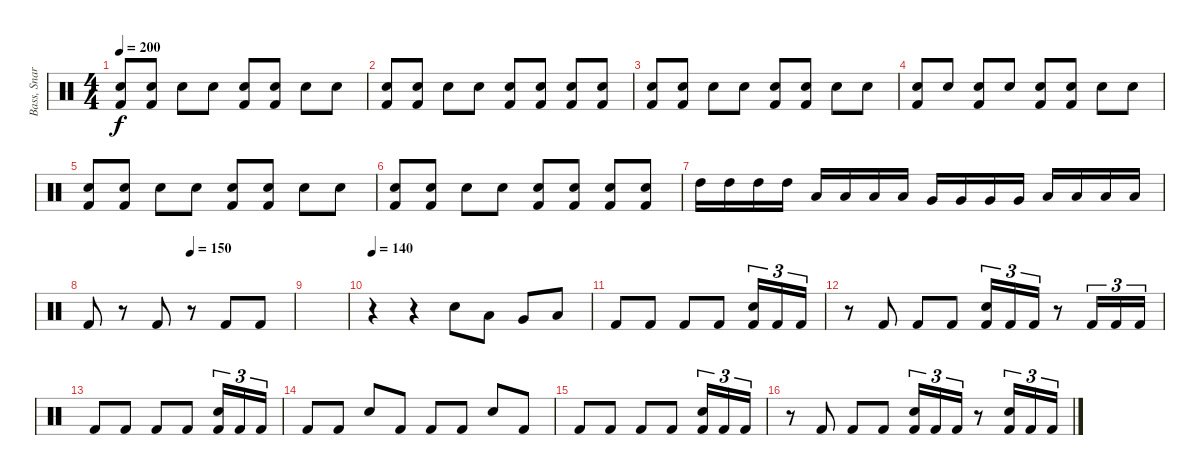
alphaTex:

\track ("Bass, Snare & Toms" "Bass, Snar") {instrument percussion}
\staff {score}
\articulation defaults
\ts (4 4)
\tempo 200
\clef neutral
\ks c
("Electric Snare (hit)" "Kick (hit) 2").8{dy f} ("Electric Snare (hit)" "Kick (hit) 2").8 "Electric Snare (hit)".8 "Electric Snare (hit)".8 ("Electric Snare (hit)" "Kick (hit) 2").8 ("Electric Snare (hit)" "Kick (hit) 2").8 "Electric Snare (hit)".8 "Electric Snare (hit)".8 |
("Electric Snare (hit)" "Kick (hit) 2").8 ("Electric Snare (hit)" "Kick (hit) 2").8 "Electric Snare (hit)".8 "Electric Snare (hit)".8 ("Electric Snare (hit)" "Kick (hit) 2").8 ("Electric Snare (hit)" "Kick (hit) 2").8 ("Electric Snare (hit)" "Kick (hit) 2").8 ("Electric Snare (hit)" "Kick (hit) 2").8 |
("Electric Snare (hit)" "Kick (hit) 2").8 ("Electric Snare (hit)" "Kick (hit) 2").8 "Electric Snare (hit)".8 "Electric Snare (hit)".8 ("Electric Snare (hit)" "Kick (hit) 2").8 ("Electric Snare (hit)" "Kick (hit) 2").8 "Electric Snare (hit)".8 "Electric Snare (hit)".8 |
("Electric Snare (hit)" "Kick (hit) 2").8 "Electric Snare (hit)".8 ("Electric Snare (hit)" "Kick (hit) 2").8 "Electric Snare (hit)".8 ("Electric Snare (hit)" "Kick (hit) 2").8 ("Electric Snare (hit)" "Kick (hit) 2").8 "Electric Snare (hit)".8 "Electric Snare (hit)".8 |
("Electric Snare (hit)" "Kick (hit) 2").8 ("Electric Snare (hit)" "Kick (hit) 2").8 "Electric Snare (hit)".8 "Electric Snare (hit)".8 ("Electric Snare (hit)" "Kick (hit) 2").8 ("Electric Snare (hit)" "Kick (hit) 2").8 "Electric Snare (hit)".8 "Electric Snare (hit)".8 |
("Electric Snare (hit)" "Kick (hit) 2").8 ("Electric Snare (hit)" "Kick (hit) 2").8 "Electric Snare (hit)".8 "Electric Snare (hit)".8 ("Electric Snare (hit)" "Kick (hit) 2").8 ("Electric Snare (hit)" "Kick (hit) 2").8 ("Electric Snare (hit)" "Kick (hit) 2").8 ("Electric Snare (hit)" "Kick (hit) 2").8 |
"High Tom (hit)".16 "High Tom (hit)".16 "High Tom (hit)".16 "High Tom (hit)".16 "Low Tom (hit)".16 "Low Tom (hit)".16 "Low Tom (hit)".16 "Low Tom (hit)".16 "Very Low Tom (hit)".16 "Very Low Tom (hit)".16 "Very Low Tom (hit)".16 "Very Low Tom (hit)".16 "Low Floor Tom (hit)".16 "Low Floor Tom (hit)".16 "Low Floor Tom (hit)".16 "Low Floor Tom (hit)".16 |
\tempo (150 0.5)
"Kick (hit) 2".8 r.8 "Kick (hit) 2".8 r.8 "Kick (hit) 2".8 "Kick (hit) 2".8 |
|
\tempo 140
r.4 r.4 "Electric Snare (hit)".8 "Low Tom (hit)".8 "Very Low Tom (hit)".8 "Low Floor Tom (hit)".8 |
"Kick (hit) 2".8 "Kick (hit) 2".8 "Kick (hit) 2".8 "Kick (hit) 2".8 ("Electric Snare (hit)" "Kick (hit) 2").16{tu (3 2)} "Kick (hit) 2".16{tu (3 2)} "Kick (hit) 2".16{tu (3 2)} |
r.8 "Kick (hit) 2".8 "Kick (hit) 2".8 "Kick (hit) 2".8 ("Electric Snare (hit)" "Kick (hit) 2").16{tu (3 2)} "Kick (hit) 2".16{tu (3 2)} "Kick (hit) 2".16{tu (3 2)} r.8 "Kick (hit) 2".16{tu (3 2)} "Kick (hit) 2".16{tu (3 2)} "Kick (hit) 2".16{tu (3 2)} |
"Kick (hit) 2".8 "Kick (hit) 2".8 "Kick (hit) 2".8 "Kick (hit) 2".8 ("Electric Snare (hit)" "Kick (hit) 2").16{tu (3 2)} "Kick (hit) 2".16{tu (3 2)} "Kick (hit) 2".16{tu (3 2)} |
"Kick (hit) 2".8 "Kick (hit) 2".8 "Electric Snare (hit)".8 "Kick (hit) 2".8 "Kick (hit) 2".8 "Kick (hit) 2".8 "Electric Snare (hit)".8 "Kick (hit) 2".8 |
"Kick (hit) 2".8 "Kick (hit) 2".8 "Kick (hit) 2".8 "Kick (hit) 2".8 ("Electric Snare (hit)" "Kick (hit) 2").16{tu (3 2)} "Kick (hit) 2".16{tu (3 2)} "Kick (hit) 2".16{tu (3 2)} |
r.8 "Kick (hit) 2".8 "Kick (hit) 2".8 "Kick (hit) 2".8 ("Electric Snare (hit)" "Kick (hit) 2").16{tu (3 2)} "Kick (hit) 2".16{tu (3 2)} "Kick (hit) 2".16{tu (3 2)} r.8 ("Electric Snare (hit)" "Kick (hit) 2").16{tu (3 2)} "Kick (hit) 2".16{tu (3 2)} "Kick (hit) 2".16{tu (3 2)}
